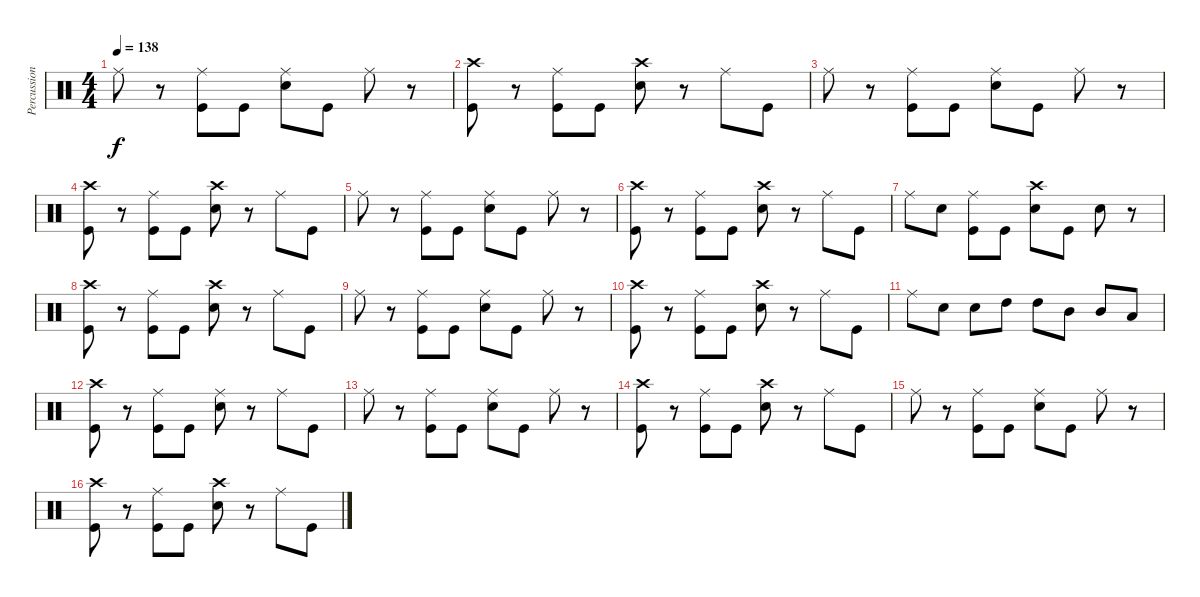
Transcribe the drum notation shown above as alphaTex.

\track ("Percussion" "Percussion") {instrument percussion}
\staff {score}
\articulation defaults
\ts (4 4)
\tempo 138
\clef neutral
\ks c "Ride (middle)".8{dy f}
r.8 ("Ride (middle)" "Kick (hit)").8 "Kick (hit)".8 ("Snare (hit) 2" "Ride (middle)").8 "Kick (hit)".8 "Ride (middle)".8 r.8 |
("Crash high (hit)" "Kick (hit)").8 r.8 ("Ride (middle)" "Kick (hit)").8 "Kick (hit)".8 ("Snare (hit) 2" "Crash high (hit)").8 r.8 "Ride (middle)".8 "Kick (hit)".8 |
"Ride (middle)".8 r.8 ("Ride (middle)" "Kick (hit)").8 "Kick (hit)".8 ("Snare (hit) 2" "Ride (middle)").8 "Kick (hit)".8 "Ride (middle)".8 r.8 |
("Crash high (hit)" "Kick (hit)").8 r.8 ("Ride (middle)" "Kick (hit)").8 "Kick (hit)".8 ("Snare (hit) 2" "Crash high (hit)").8 r.8 "Ride (middle)".8 "Kick (hit)".8 |
"Ride (middle)".8 r.8 ("Ride (middle)" "Kick (hit)").8 "Kick (hit)".8 ("Snare (hit) 2" "Ride (middle)").8 "Kick (hit)".8 "Ride (middle)".8 r.8 |
("Crash high (hit)" "Kick (hit)").8 r.8 ("Ride (middle)" "Kick (hit)").8 "Kick (hit)".8 ("Snare (hit) 2" "Crash high (hit)").8 r.8 "Ride (middle)".8 "Kick (hit)".8 |
"Ride (middle)".8 "Snare (hit) 2".8 ("Ride (middle)" "Kick (hit)").8 "Kick (hit)".8 ("Snare (hit) 2" "Crash high (hit)").8 "Kick (hit)".8 "Snare (hit) 2".8 r.8 |
("Crash high (hit)" "Kick (hit)").8 r.8 ("Ride (middle)" "Kick (hit)").8 "Kick (hit)".8 ("Snare (hit) 2" "Crash high (hit)").8 r.8 "Ride (middle)".8 "Kick (hit)".8 |
"Ride (middle)".8 r.8 ("Ride (middle)" "Kick (hit)").8 "Kick (hit)".8 ("Snare (hit) 2" "Ride (middle)").8 "Kick (hit)".8 "Ride (middle)".8 r.8 |
("Crash high (hit)" "Kick (hit)").8 r.8 ("Ride (middle)" "Kick (hit)").8 "Kick (hit)".8 ("Snare (hit) 2" "Crash high (hit)").8 r.8 "Ride (middle)".8 "Kick (hit)".8 |
"Ride (middle)".8 "Snare (hit) 2".8 "Snare (hit) 2".8 "High Tom (hit)".8 "High Tom (hit)".8 "Mid Tom (hit)".8 "Mid Tom (hit)".8 "Low Tom (hit)".8 |
("Crash high (hit)" "Kick (hit)").8 r.8 ("Ride (middle)" "Kick (hit)").8 "Kick (hit)".8 ("Snare (hit) 2" "Ride (middle)").8 r.8 "Ride (middle)".8 "Kick (hit)".8 |
"Ride (middle)".8 r.8 ("Ride (middle)" "Kick (hit)").8 "Kick (hit)".8 ("Snare (hit) 2" "Ride (middle)").8 "Kick (hit)".8 "Ride (middle)".8 r.8 |
("Crash high (hit)" "Kick (hit)").8 r.8 ("Ride (middle)" "Kick (hit)").8 "Kick (hit)".8 ("Snare (hit) 2" "Crash high (hit)").8 r.8 "Ride (middle)".8 "Kick (hit)".8 |
"Ride (middle)".8 r.8 ("Ride (middle)" "Kick (hit)").8 "Kick (hit)".8 ("Snare (hit) 2" "Ride (middle)").8 "Kick (hit)".8 "Ride (middle)".8 r.8 |
("Crash high (hit)" "Kick (hit)").8 r.8 ("Ride (middle)" "Kick (hit)").8 "Kick (hit)".8 ("Snare (hit) 2" "Crash high (hit)").8 r.8 "Ride (middle)".8 "Kick (hit)".8
